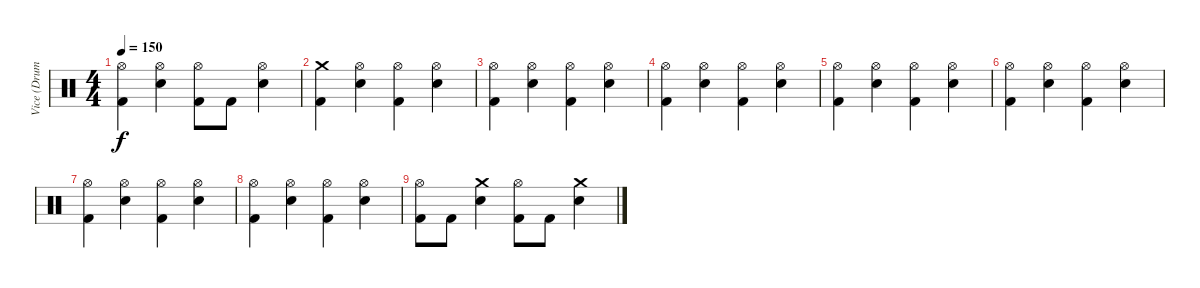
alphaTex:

\track ("Vice (Drums)" "Vice (Drum") {instrument percussion}
\staff {score}
\articulation defaults
\ts (4 4)
\tempo 150
\clef neutral
\ks c
("Hi-Hat (open)" "Kick (hit) 2").4{dy f} ("Hi-Hat (open)" "Electric Snare (hit)").4 ("Hi-Hat (open)" "Kick (hit) 2").8 "Kick (hit) 2".8 ("Hi-Hat (open)" "Electric Snare (hit)").4 |
("Crash medium (hit)" "Kick (hit) 2").4 ("Hi-Hat (open)" "Electric Snare (hit)").4 ("Hi-Hat (open)" "Kick (hit) 2").4 ("Hi-Hat (open)" "Electric Snare (hit)").4 |
("Hi-Hat (open)" "Kick (hit) 2").4 ("Hi-Hat (open)" "Electric Snare (hit)").4 ("Hi-Hat (open)" "Kick (hit) 2").4 ("Hi-Hat (open)" "Electric Snare (hit)").4 |
("Hi-Hat (open)" "Kick (hit) 2").4 ("Hi-Hat (open)" "Electric Snare (hit)").4 ("Hi-Hat (open)" "Kick (hit) 2").4 ("Hi-Hat (open)" "Electric Snare (hit)").4 |
("Hi-Hat (open)" "Kick (hit) 2").4 ("Hi-Hat (open)" "Electric Snare (hit)").4 ("Hi-Hat (open)" "Kick (hit) 2").4 ("Hi-Hat (open)" "Electric Snare (hit)").4 |
("Hi-Hat (open)" "Kick (hit) 2").4 ("Hi-Hat (open)" "Electric Snare (hit)").4 ("Hi-Hat (open)" "Kick (hit) 2").4 ("Hi-Hat (open)" "Electric Snare (hit)").4 |
("Hi-Hat (open)" "Kick (hit) 2").4 ("Hi-Hat (open)" "Electric Snare (hit)").4 ("Hi-Hat (open)" "Kick (hit) 2").4 ("Hi-Hat (open)" "Electric Snare (hit)").4 |
("Hi-Hat (open)" "Kick (hit) 2").4 ("Hi-Hat (open)" "Electric Snare (hit)").4 ("Hi-Hat (open)" "Kick (hit) 2").4 ("Hi-Hat (open)" "Electric Snare (hit)").4 |
("Hi-Hat (open)" "Kick (hit) 2").8 "Kick (hit) 2".8 ("Crash medium (hit)" "Electric Snare (hit)").4 ("Hi-Hat (open)" "Kick (hit) 2").8 "Kick (hit) 2".8 ("Crash medium (hit)" "Electric Snare (hit)").4
